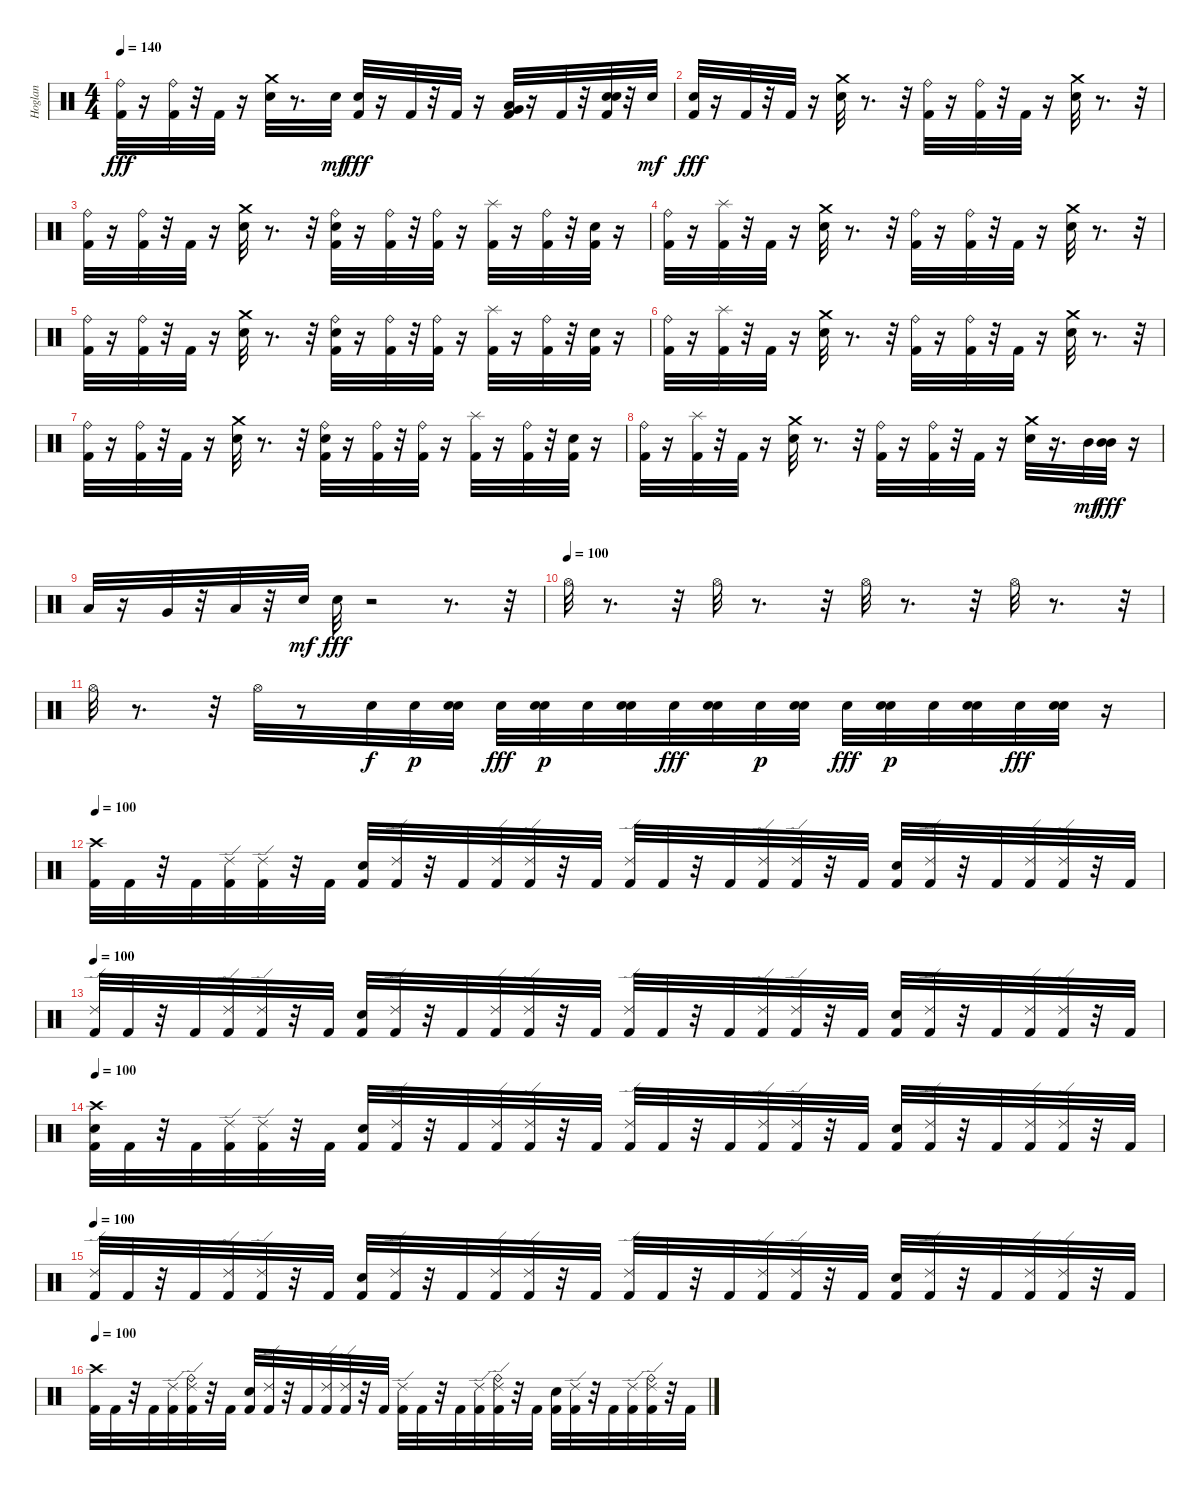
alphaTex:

\track ("Hoglan" "Hoglan") {instrument percussion}
\staff {score}
\articulation defaults
\ts (4 4)
\tempo 140
\clef neutral
\ks c
("Ride (bell)" "Kick (hit) 2").32{dy fff} r.16 ("Ride (bell)" "Kick (hit) 2").32 r.32 "Kick (hit) 2".32 r.16 ("Crash medium (hit)" "Electric Snare (hit)").32 r.8{d} "Electric Snare (hit)".32{dy mf} ("Electric Snare (hit)" "Kick (hit) 2").32{dy fff} r.16 "Kick (hit) 2".32 r.32 "Kick (hit) 2".32 r.16 ("Very Low Tom (hit)" "Low Floor Tom (hit)" "Kick (hit) 2").32 r.16 "Kick (hit) 2".32 r.32 ("Electric Snare (hit)" "Electric Snare (hit)" "Kick (hit) 2").32 r.32 "Electric Snare (hit)".32{dy mf} |
("Electric Snare (hit)" "Kick (hit) 2").32{dy fff} r.16 "Kick (hit) 2".32 r.32 "Kick (hit) 2".32 r.16 ("Crash medium (hit)" "Electric Snare (hit)").32 r.8{d} r.32 ("Ride (bell)" "Kick (hit) 2").32 r.16 ("Ride (bell)" "Kick (hit) 2").32 r.32 "Kick (hit) 2".32 r.16 ("Crash medium (hit)" "Electric Snare (hit)").32 r.8{d} r.32 |
("Ride (bell)" "Kick (hit) 2").32 r.16 ("Ride (bell)" "Kick (hit) 2").32 r.32 "Kick (hit) 2".32 r.16 ("Crash medium (hit)" "Electric Snare (hit)").32 r.8{d} r.32 ("Ride (bell)" "Electric Snare (hit)" "Kick (hit) 2").32 r.16 ("Ride (bell)" "Kick (hit) 2").32 r.32 ("Ride (bell)" "Kick (hit) 2").32 r.16 ("Splash (hit)" "Kick (hit) 2").32 r.16 ("Ride (bell)" "Kick (hit) 2").32 r.32 ("Electric Snare (hit)" "Kick (hit) 2").32 r.16 |
("Ride (bell)" "Kick (hit) 2").32 r.16 ("Splash (hit)" "Kick (hit) 2").32 r.32 "Kick (hit) 2".32 r.16 ("Crash medium (hit)" "Electric Snare (hit)").32 r.8{d} r.32 ("Ride (bell)" "Kick (hit) 2").32 r.16 ("Ride (bell)" "Kick (hit) 2").32 r.32 "Kick (hit) 2".32 r.16 ("Crash medium (hit)" "Electric Snare (hit)").32 r.8{d} r.32 |
("Ride (bell)" "Kick (hit) 2").32 r.16 ("Ride (bell)" "Kick (hit) 2").32 r.32 "Kick (hit) 2".32 r.16 ("Crash medium (hit)" "Electric Snare (hit)").32 r.8{d} r.32 ("Ride (bell)" "Electric Snare (hit)" "Kick (hit) 2").32 r.16 ("Ride (bell)" "Kick (hit) 2").32 r.32 ("Ride (bell)" "Kick (hit) 2").32 r.16 ("Splash (hit)" "Kick (hit) 2").32 r.16 ("Ride (bell)" "Kick (hit) 2").32 r.32 ("Electric Snare (hit)" "Kick (hit) 2").32 r.16 |
("Ride (bell)" "Kick (hit) 2").32 r.16 ("Splash (hit)" "Kick (hit) 2").32 r.32 "Kick (hit) 2".32 r.16 ("Crash medium (hit)" "Electric Snare (hit)").32 r.8{d} r.32 ("Ride (bell)" "Kick (hit) 2").32 r.16 ("Ride (bell)" "Kick (hit) 2").32 r.32 "Kick (hit) 2".32 r.16 ("Crash medium (hit)" "Electric Snare (hit)").32 r.8{d} r.32 |
("Ride (bell)" "Kick (hit) 2").32 r.16 ("Ride (bell)" "Kick (hit) 2").32 r.32 "Kick (hit) 2".32 r.16 ("Crash medium (hit)" "Electric Snare (hit)").32 r.8{d} r.32 ("Ride (bell)" "Electric Snare (hit)" "Kick (hit) 2").32 r.16 ("Ride (bell)" "Kick (hit) 2").32 r.32 ("Ride (bell)" "Kick (hit) 2").32 r.16 ("Splash (hit)" "Kick (hit) 2").32 r.16 ("Ride (bell)" "Kick (hit) 2").32 r.32 ("Electric Snare (hit)" "Kick (hit) 2").32 r.16 |
("Ride (bell)" "Kick (hit) 2").32 r.16 ("Splash (hit)" "Kick (hit) 2").32 r.32 "Kick (hit) 2".32 r.16 ("Crash medium (hit)" "Electric Snare (hit)").32 r.8{d} r.32 ("Ride (bell)" "Kick (hit) 2").32 r.16 ("Ride (bell)" "Kick (hit) 2").32 r.32 "Kick (hit) 2".32 r.16 ("Crash medium (hit)" "Electric Snare (hit)").32 r.16{d} "Mid Tom (hit)".32{dy mf} ("Mid Tom (hit)" "Mid Tom (hit)").32{dy fff} r.16 |
"Low Tom (hit)".32 r.16 "Very Low Tom (hit)".32 r.32 "Low Floor Tom (hit)".32 r.32 "Electric Snare (hit)".32{dy mf} "Electric Snare (hit)".32{dy fff} r.2 r.8{d} r.32 |
\tempo (100)
"Hi-Hat (open)".32 r.8{d} r.32 "Hi-Hat (open)".32 r.8{d} r.32 "Hi-Hat (open)".32 r.8{d} r.32 "Hi-Hat (open)".32 r.8{d} r.32 |
"Hi-Hat (open)".32 r.8{d} r.32 "Hi-Hat (open)".32 r.8 "Electric Snare (hit)".32{dy f} "Electric Snare (hit)".32{dy p} ("Electric Snare (hit)" "Electric Snare (hit)").32 "Electric Snare (hit)".32{dy fff} ("Electric Snare (hit)" "Electric Snare (hit)").32{dy p} "Electric Snare (hit)".32 ("Electric Snare (hit)" "Electric Snare (hit)").32 "Electric Snare (hit)".32{dy fff} ("Electric Snare (hit)" "Electric Snare (hit)").32 "Electric Snare (hit)".32{dy p} ("Electric Snare (hit)" "Electric Snare (hit)").32 "Electric Snare (hit)".32{dy fff} ("Electric Snare (hit)" "Electric Snare (hit)").32{dy p} "Electric Snare (hit)".32 ("Electric Snare (hit)" "Electric Snare (hit)").32 "Electric Snare (hit)".32{dy fff} ("Electric Snare (hit)" "Electric Snare (hit)").32 r.16 |
\tempo 100
("Crash high (hit)" "Kick (hit) 2").32 "Kick (hit) 2".32 r.32 "Kick (hit) 2".32 ("Ride (edge) 2" "Kick (hit) 2").32 ("Ride (edge) 2" "Kick (hit) 2").32 r.32 "Kick (hit) 2".32 ("Electric Snare (hit)" "Kick (hit) 2").32 ("Ride (edge) 2" "Kick (hit) 2").32 r.32 "Kick (hit) 2".32 ("Ride (edge) 2" "Kick (hit) 2").32 ("Ride (edge) 2" "Kick (hit) 2").32 r.32 "Kick (hit) 2".32 ("Ride (edge) 2" "Kick (hit) 2").32 "Kick (hit) 2".32 r.32 "Kick (hit) 2".32 ("Ride (edge) 2" "Kick (hit) 2").32 ("Ride (edge) 2" "Kick (hit) 2").32 r.32 "Kick (hit) 2".32 ("Electric Snare (hit)" "Kick (hit) 2").32 ("Ride (edge) 2" "Kick (hit) 2").32 r.32 "Kick (hit) 2".32 ("Ride (edge) 2" "Kick (hit) 2").32 ("Ride (edge) 2" "Kick (hit) 2").32 r.32 "Kick (hit) 2".32 |
\tempo 100
("Ride (edge) 2" "Kick (hit) 2").32 "Kick (hit) 2".32 r.32 "Kick (hit) 2".32 ("Ride (edge) 2" "Kick (hit) 2").32 ("Ride (edge) 2" "Kick (hit) 2").32 r.32 "Kick (hit) 2".32 ("Electric Snare (hit)" "Kick (hit) 2").32 ("Ride (edge) 2" "Kick (hit) 2").32 r.32 "Kick (hit) 2".32 ("Ride (edge) 2" "Kick (hit) 2").32 ("Ride (edge) 2" "Kick (hit) 2").32 r.32 "Kick (hit) 2".32 ("Ride (edge) 2" "Kick (hit) 2").32 "Kick (hit) 2".32 r.32 "Kick (hit) 2".32 ("Ride (edge) 2" "Kick (hit) 2").32 ("Ride (edge) 2" "Kick (hit) 2").32 r.32 "Kick (hit) 2".32 ("Electric Snare (hit)" "Kick (hit) 2").32 ("Ride (edge) 2" "Kick (hit) 2").32 r.32 "Kick (hit) 2".32 ("Ride (edge) 2" "Kick (hit) 2").32 ("Ride (edge) 2" "Kick (hit) 2").32 r.32 "Kick (hit) 2".32 |
\tempo 100
("Crash high (hit)" "Electric Snare (hit)" "Kick (hit) 2").32 "Kick (hit) 2".32 r.32 "Kick (hit) 2".32 ("Ride (edge) 2" "Kick (hit) 2").32 ("Ride (edge) 2" "Kick (hit) 2").32 r.32 "Kick (hit) 2".32 ("Electric Snare (hit)" "Kick (hit) 2").32 ("Ride (edge) 2" "Kick (hit) 2").32 r.32 "Kick (hit) 2".32 ("Ride (edge) 2" "Kick (hit) 2").32 ("Ride (edge) 2" "Kick (hit) 2").32 r.32 "Kick (hit) 2".32 ("Ride (edge) 2" "Kick (hit) 2").32 "Kick (hit) 2".32 r.32 "Kick (hit) 2".32 ("Ride (edge) 2" "Kick (hit) 2").32 ("Ride (edge) 2" "Kick (hit) 2").32 r.32 "Kick (hit) 2".32 ("Electric Snare (hit)" "Kick (hit) 2").32 ("Ride (edge) 2" "Kick (hit) 2").32 r.32 "Kick (hit) 2".32 ("Ride (edge) 2" "Kick (hit) 2").32 ("Ride (edge) 2" "Kick (hit) 2").32 r.32 "Kick (hit) 2".32 |
\tempo 100
("Ride (edge) 2" "Kick (hit) 2").32 "Kick (hit) 2".32 r.32 "Kick (hit) 2".32 ("Ride (edge) 2" "Kick (hit) 2").32 ("Ride (edge) 2" "Kick (hit) 2").32 r.32 "Kick (hit) 2".32 ("Electric Snare (hit)" "Kick (hit) 2").32 ("Ride (edge) 2" "Kick (hit) 2").32 r.32 "Kick (hit) 2".32 ("Ride (edge) 2" "Kick (hit) 2").32 ("Ride (edge) 2" "Kick (hit) 2").32 r.32 "Kick (hit) 2".32 ("Ride (edge) 2" "Kick (hit) 2").32 "Kick (hit) 2".32 r.32 "Kick (hit) 2".32 ("Ride (edge) 2" "Kick (hit) 2").32 ("Ride (edge) 2" "Kick (hit) 2").32 r.32 "Kick (hit) 2".32 ("Electric Snare (hit)" "Kick (hit) 2").32 ("Ride (edge) 2" "Kick (hit) 2").32 r.32 "Kick (hit) 2".32 ("Ride (edge) 2" "Kick (hit) 2").32 ("Ride (edge) 2" "Kick (hit) 2").32 r.32 "Kick (hit) 2".32 |
\tempo 100
("Crash high (hit)" "Kick (hit) 2").32 "Kick (hit) 2".32 r.32 "Kick (hit) 2".32 ("Ride (edge) 2" "Kick (hit) 2").32 ("Ride (bell)" "Ride (edge) 2" "Kick (hit) 2").32 r.32 "Kick (hit) 2".32 ("Electric Snare (hit)" "Kick (hit) 2").32 ("Ride (edge) 2" "Kick (hit) 2").32 r.32 "Kick (hit) 2".32 ("Ride (edge) 2" "Kick (hit) 2").32 ("Ride (edge) 2" "Kick (hit) 2").32 r.32 "Kick (hit) 2".32 ("Ride (edge) 2" "Kick (hit) 2").32 "Kick (hit) 2".32 r.32 "Kick (hit) 2".32 ("Ride (edge) 2" "Kick (hit) 2").32 ("Ride (bell)" "Ride (edge) 2" "Kick (hit) 2").32 r.32 "Kick (hit) 2".32 ("Electric Snare (hit)" "Kick (hit) 2").32 ("Ride (edge) 2" "Kick (hit) 2").32 r.32 "Kick (hit) 2".32 ("Ride (edge) 2" "Kick (hit) 2").32 ("Ride (edge) 2" "Ride (bell)" "Kick (hit) 2").32 r.32 "Kick (hit) 2".32
